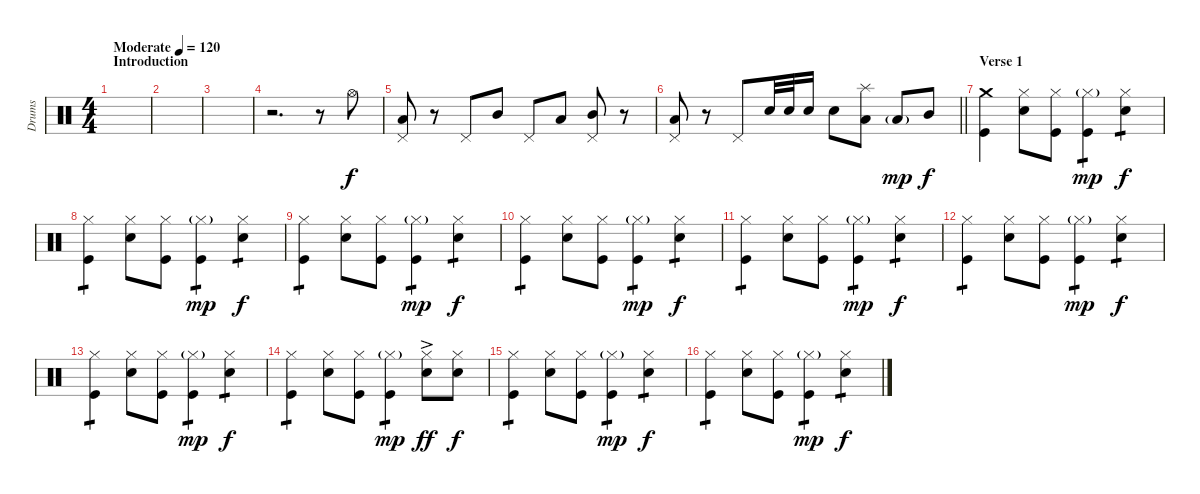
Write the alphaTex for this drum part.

\track ("Drums" "Drums") {instrument percussion}
\staff {score}
\articulation defaults
\ts (4 4)
\section ("" "Introduction")
\tempo (120 "Moderate")
\clef neutral
\ks c
|
|
|
r.2{d} r.8 "Hi-Hat (open)".8 |
("Pedal Hi-Hat (hit)" "Low Tom (hit)").8 r.8 "Pedal Hi-Hat (hit)".8 "Mid Tom (hit)".8 "Pedal Hi-Hat (hit)".8 "Low Tom (hit)".8 ("Pedal Hi-Hat (hit)" "Mid Tom (hit)").8 r.8 |
\barLineRight lightlight
("Pedal Hi-Hat (hit)" "Low Tom (hit)").8 r.8 "Pedal Hi-Hat (hit)".8 "Snare (hit) 2".32 "Snare (hit) 2".32 "Snare (hit) 2".16 "Snare (hit) 2".8 ("Splash (hit)" "Low Tom (hit)").8 "Low Tom (hit)"{g}.8{dy mp} "Mid Tom (hit)".8{dy f} |
\section ("" "Verse 1")
("Crash medium (hit)" "Kick (hit)").4 ("Hi-Hat (closed)" "Snare (hit) 2").8 ("Hi-Hat (closed)" "Kick (hit)").8 ("Hi-Hat (closed)"{g} "Kick (hit)").4{tp 1 dy mp} ("Hi-Hat (closed)" "Snare (hit) 2").4{tp 1 dy f} |
("Hi-Hat (closed)" "Kick (hit)").4{tp 1} ("Hi-Hat (closed)" "Snare (hit) 2").8 ("Hi-Hat (closed)" "Kick (hit)").8 ("Hi-Hat (closed)"{g} "Kick (hit)").4{tp 1 dy mp} ("Hi-Hat (closed)" "Snare (hit) 2").4{tp 1 dy f} |
("Hi-Hat (closed)" "Kick (hit)").4{tp 1} ("Hi-Hat (closed)" "Snare (hit) 2").8 ("Hi-Hat (closed)" "Kick (hit)").8 ("Hi-Hat (closed)"{g} "Kick (hit)").4{tp 1 dy mp} ("Hi-Hat (closed)" "Snare (hit) 2").4{tp 1 dy f} |
("Hi-Hat (closed)" "Kick (hit)").4{tp 1} ("Hi-Hat (closed)" "Snare (hit) 2").8 ("Hi-Hat (closed)" "Kick (hit)").8 ("Hi-Hat (closed)"{g} "Kick (hit)").4{tp 1 dy mp} ("Hi-Hat (closed)" "Snare (hit) 2").4{tp 1 dy f} |
("Hi-Hat (closed)" "Kick (hit)").4{tp 1} ("Hi-Hat (closed)" "Snare (hit) 2").8 ("Hi-Hat (closed)" "Kick (hit)").8 ("Hi-Hat (closed)"{g} "Kick (hit)").4{tp 1 dy mp} ("Hi-Hat (closed)" "Snare (hit) 2").4{tp 1 dy f} |
("Hi-Hat (closed)" "Kick (hit)").4{tp 1} ("Hi-Hat (closed)" "Snare (hit) 2").8 ("Hi-Hat (closed)" "Kick (hit)").8 ("Hi-Hat (closed)"{g} "Kick (hit)").4{tp 1 dy mp} ("Hi-Hat (closed)" "Snare (hit) 2").4{tp 1 dy f} |
("Hi-Hat (closed)" "Kick (hit)").4{tp 1} ("Hi-Hat (closed)" "Snare (hit) 2").8 ("Hi-Hat (closed)" "Kick (hit)").8 ("Hi-Hat (closed)"{g} "Kick (hit)").4{tp 1 dy mp} ("Hi-Hat (closed)" "Snare (hit) 2").4{tp 1 dy f} |
("Hi-Hat (closed)" "Kick (hit)").4{tp 1} ("Hi-Hat (closed)" "Snare (hit) 2").8 ("Hi-Hat (closed)" "Kick (hit)").8 ("Hi-Hat (closed)"{g} "Kick (hit)").4{tp 1 dy mp} ("Hi-Hat (closed)" "Snare (hit) 2"{ac}).8{dy ff} ("Hi-Hat (closed)" "Snare (hit) 2").8{dy f} |
("Hi-Hat (closed)" "Kick (hit)").4{tp 1} ("Hi-Hat (closed)" "Snare (hit) 2").8 ("Hi-Hat (closed)" "Kick (hit)").8 ("Hi-Hat (closed)"{g} "Kick (hit)").4{tp 1 dy mp} ("Hi-Hat (closed)" "Snare (hit) 2").4{tp 1 dy f} |
("Hi-Hat (closed)" "Kick (hit)").4{tp 1} ("Hi-Hat (closed)" "Snare (hit) 2").8 ("Hi-Hat (closed)" "Kick (hit)").8 ("Hi-Hat (closed)"{g} "Kick (hit)").4{tp 1 dy mp} ("Hi-Hat (closed)" "Snare (hit) 2").4{tp 1 dy f}
